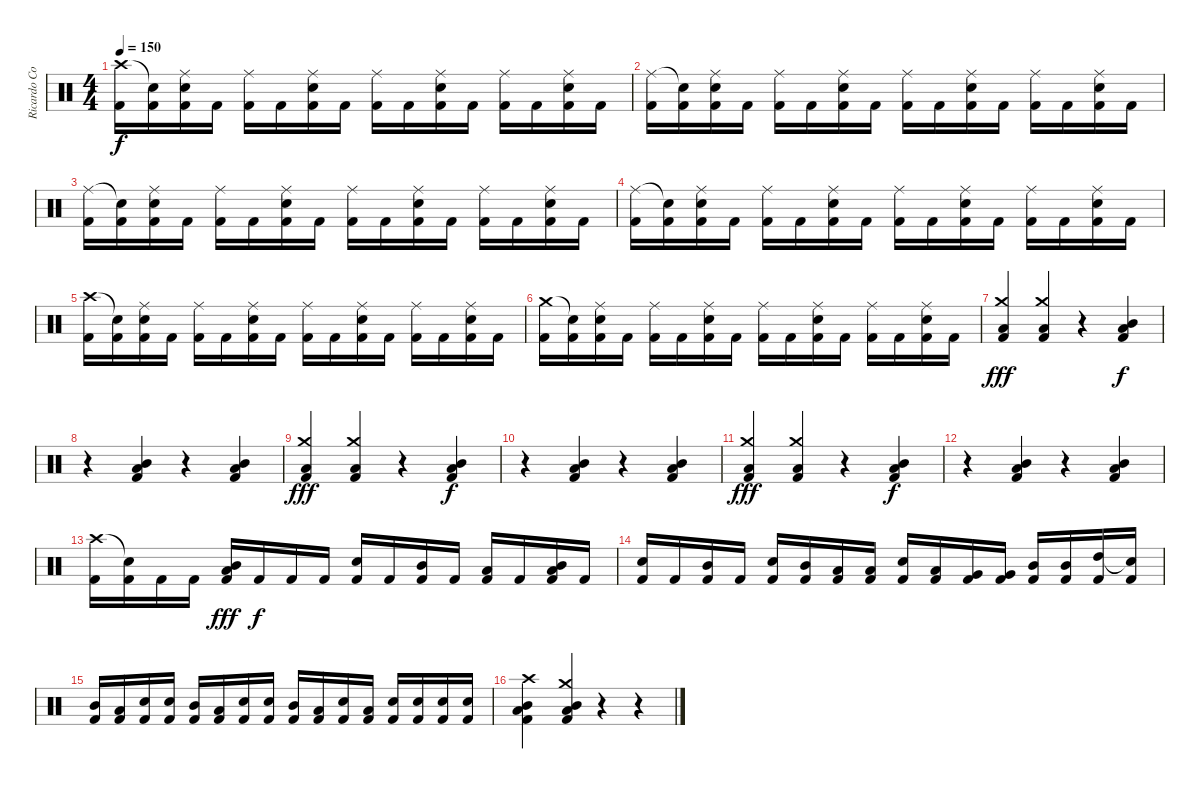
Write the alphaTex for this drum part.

\track ("Ricardo Confessori" "Ricardo Co") {instrument percussion}
\staff {score}
\articulation defaults
\ts (4 4)
\tempo 150
\clef neutral
\ks c
("Crash high (hit)" "Kick (hit) 2").16{dy f} ("Snare (hit)"{t} "Kick (hit) 2").16 ("Ride (middle)" "Electric Snare (hit)" "Kick (hit) 2").16 "Kick (hit) 2".16 ("Ride (middle)" "Kick (hit) 2").16 "Kick (hit) 2".16 ("Ride (middle)" "Electric Snare (hit)" "Kick (hit) 2").16 "Kick (hit) 2".16 ("Ride (middle)" "Kick (hit) 2").16 "Kick (hit) 2".16 ("Ride (middle)" "Electric Snare (hit)" "Kick (hit) 2").16 "Kick (hit) 2".16 ("Ride (middle)" "Kick (hit) 2").16 "Kick (hit) 2".16 ("Ride (middle)" "Electric Snare (hit)" "Kick (hit) 2").16 "Kick (hit) 2".16 |
("Ride (middle)" "Kick (hit) 2").16 ("Snare (hit)"{t} "Kick (hit) 2").16 ("Ride (middle)" "Electric Snare (hit)" "Kick (hit) 2").16 "Kick (hit) 2".16 ("Ride (middle)" "Kick (hit) 2").16 "Kick (hit) 2".16 ("Ride (middle)" "Electric Snare (hit)" "Kick (hit) 2").16 "Kick (hit) 2".16 ("Ride (middle)" "Kick (hit) 2").16 "Kick (hit) 2".16 ("Ride (middle)" "Electric Snare (hit)" "Kick (hit) 2").16 "Kick (hit) 2".16 ("Ride (middle)" "Kick (hit) 2").16 "Kick (hit) 2".16 ("Ride (middle)" "Electric Snare (hit)" "Kick (hit) 2").16 "Kick (hit) 2".16 |
("Ride (middle)" "Kick (hit) 2").16 ("Snare (hit)"{t} "Kick (hit) 2").16 ("Ride (middle)" "Electric Snare (hit)" "Kick (hit) 2").16 "Kick (hit) 2".16 ("Ride (middle)" "Kick (hit) 2").16 "Kick (hit) 2".16 ("Ride (middle)" "Electric Snare (hit)" "Kick (hit) 2").16 "Kick (hit) 2".16 ("Ride (middle)" "Kick (hit) 2").16 "Kick (hit) 2".16 ("Ride (middle)" "Electric Snare (hit)" "Kick (hit) 2").16 "Kick (hit) 2".16 ("Ride (middle)" "Kick (hit) 2").16 "Kick (hit) 2".16 ("Ride (middle)" "Electric Snare (hit)" "Kick (hit) 2").16 "Kick (hit) 2".16 |
("Ride (middle)" "Kick (hit) 2").16 ("Snare (hit)"{t} "Kick (hit) 2").16 ("Ride (middle)" "Electric Snare (hit)" "Kick (hit) 2").16 "Kick (hit) 2".16 ("Ride (middle)" "Kick (hit) 2").16 "Kick (hit) 2".16 ("Ride (middle)" "Electric Snare (hit)" "Kick (hit) 2").16 "Kick (hit) 2".16 ("Ride (middle)" "Kick (hit) 2").16 "Kick (hit) 2".16 ("Ride (middle)" "Electric Snare (hit)" "Kick (hit) 2").16 "Kick (hit) 2".16 ("Ride (middle)" "Kick (hit) 2").16 "Kick (hit) 2".16 ("Ride (middle)" "Electric Snare (hit)" "Kick (hit) 2").16 "Kick (hit) 2".16 |
("Crash high (hit)" "Kick (hit) 2").16 ("Snare (hit)"{t} "Kick (hit) 2").16 ("Ride (middle)" "Electric Snare (hit)" "Kick (hit) 2").16 "Kick (hit) 2".16 ("Ride (middle)" "Kick (hit) 2").16 "Kick (hit) 2".16 ("Ride (middle)" "Electric Snare (hit)" "Kick (hit) 2").16 "Kick (hit) 2".16 ("Ride (middle)" "Kick (hit) 2").16 "Kick (hit) 2".16 ("Ride (middle)" "Electric Snare (hit)" "Kick (hit) 2").16 "Kick (hit) 2".16 ("Ride (middle)" "Kick (hit) 2").16 "Kick (hit) 2".16 ("Ride (middle)" "Electric Snare (hit)" "Kick (hit) 2").16 "Kick (hit) 2".16 |
("Crash medium (hit)" "Kick (hit) 2").16 ("Snare (hit)"{t} "Kick (hit) 2").16 ("Ride (middle)" "Electric Snare (hit)" "Kick (hit) 2").16 "Kick (hit) 2".16 ("Ride (middle)" "Kick (hit) 2").16 "Kick (hit) 2".16 ("Ride (middle)" "Electric Snare (hit)" "Kick (hit) 2").16 "Kick (hit) 2".16 ("Ride (middle)" "Kick (hit) 2").16 "Kick (hit) 2".16 ("Ride (middle)" "Electric Snare (hit)" "Kick (hit) 2").16 "Kick (hit) 2".16 ("Ride (middle)" "Kick (hit) 2").16 "Kick (hit) 2".16 ("Ride (middle)" "Electric Snare (hit)" "Kick (hit) 2").16 "Kick (hit) 2".16 |
("Crash medium (hit)" "Low Tom (hit)" "Kick (hit) 2").4{dy fff} ("Crash medium (hit)" "Low Tom (hit)" "Kick (hit) 2").4 r.4 ("Mid Tom (hit)" "Low Tom (hit)" "Kick (hit) 2").4{dy f} |
r.4 ("Mid Tom (hit)" "Low Tom (hit)" "Kick (hit) 2").4 r.4 ("Mid Tom (hit)" "Low Tom (hit)" "Kick (hit) 2").4 |
("Crash medium (hit)" "Low Tom (hit)" "Kick (hit) 2").4{dy fff} ("Crash medium (hit)" "Low Tom (hit)" "Kick (hit) 2").4 r.4 ("Mid Tom (hit)" "Low Tom (hit)" "Kick (hit) 2").4{dy f} |
r.4 ("Mid Tom (hit)" "Low Tom (hit)" "Kick (hit) 2").4 r.4 ("Mid Tom (hit)" "Low Tom (hit)" "Kick (hit) 2").4 |
("Crash medium (hit)" "Low Tom (hit)" "Kick (hit) 2").4{dy fff} ("Crash medium (hit)" "Low Tom (hit)" "Kick (hit) 2").4 r.4 ("Mid Tom (hit)" "Low Tom (hit)" "Kick (hit) 2").4{dy f} |
r.4 ("Mid Tom (hit)" "Low Tom (hit)" "Kick (hit) 2").4 r.4 ("Mid Tom (hit)" "Low Tom (hit)" "Kick (hit) 2").4 |
("Crash high (hit)" "Kick (hit) 2").16 ("Snare (hit)"{t} "Kick (hit) 2").16 "Kick (hit) 2".16 "Kick (hit) 2".16 ("Low Tom (hit)" "Mid Tom (hit)" "Kick (hit) 2").16{dy fff} "Kick (hit) 2".16{dy f} "Kick (hit) 2".16 "Kick (hit) 2".16 ("Electric Snare (hit)" "Kick (hit) 2").16 "Kick (hit) 2".16 ("Mid Tom (hit)" "Kick (hit) 2").16 "Kick (hit) 2".16 ("Low Tom (hit)" "Kick (hit) 2").16 "Kick (hit) 2".16 ("Low Tom (hit)" "Mid Tom (hit)" "Kick (hit) 2").16 "Kick (hit) 2".16 |
("Electric Snare (hit)" "Kick (hit) 2").16 "Kick (hit) 2".16 ("Mid Tom (hit)" "Kick (hit) 2").16 "Kick (hit) 2".16 ("Electric Snare (hit)" "Kick (hit) 2").16 ("Mid Tom (hit)" "Kick (hit) 2").16 ("Low Tom (hit)" "Kick (hit) 2").16 ("Low Tom (hit)" "Kick (hit) 2").16 ("Electric Snare (hit)" "Kick (hit) 2").16 ("Low Tom (hit)" "Kick (hit) 2").16 ("Very Low Tom (hit)" "Kick (hit) 2").16 ("Very Low Tom (hit)" "Kick (hit) 2").16 ("Mid Tom (hit)" "Kick (hit) 2").16 ("Mid Tom (hit)" "Kick (hit) 2").16 ("High Tom (hit)" "Kick (hit) 2").16 ("Electric Snare (hit)"{t} "Kick (hit) 2").16 |
("Mid Tom (hit)" "Kick (hit) 2").16 ("Low Tom (hit)" "Kick (hit) 2").16 ("Electric Snare (hit)" "Kick (hit) 2").16 ("Electric Snare (hit)" "Kick (hit) 2").16 ("Mid Tom (hit)" "Kick (hit) 2").16 ("Low Tom (hit)" "Kick (hit) 2").16 ("Electric Snare (hit)" "Kick (hit) 2").16 ("Electric Snare (hit)" "Kick (hit) 2").16 ("Mid Tom (hit)" "Kick (hit) 2").16 ("Low Tom (hit)" "Kick (hit) 2").16 ("Electric Snare (hit)" "Kick (hit) 2").16 ("Low Tom (hit)" "Kick (hit) 2").16 ("Electric Snare (hit)" "Kick (hit) 2").16 ("Electric Snare (hit)" "Kick (hit) 2").16 ("Electric Snare (hit)" "Kick (hit) 2").16 ("Electric Snare (hit)" "Kick (hit) 2").16 |
("Crash high (hit)" "Mid Tom (hit)" "Low Tom (hit)" "Kick (hit) 2").4 ("Crash medium (hit)" "Mid Tom (hit)" "Low Tom (hit)" "Kick (hit) 2").4 r.4 r.4
